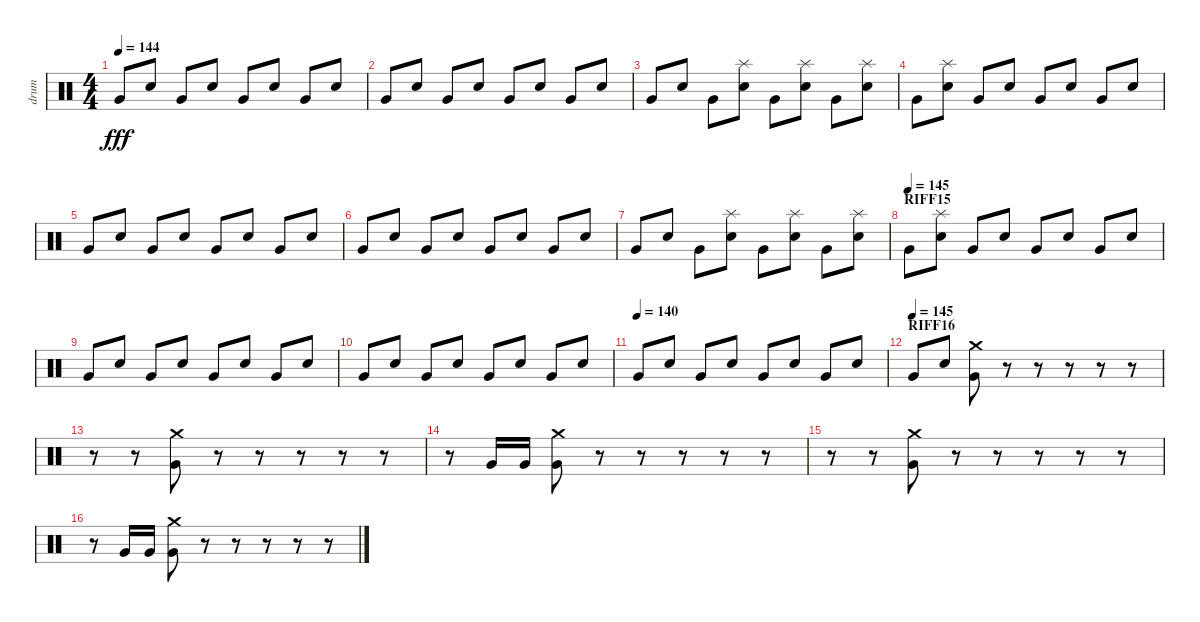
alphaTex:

\track ("drum" "drum") {instrument percussion}
\staff {score}
\articulation defaults
\ts (4 4)
\tempo 144
\clef neutral
\ks c "Very Low Tom (hit)".8{dy fff} "Electric Snare (hit)".8 "Very Low Tom (hit)".8 "Electric Snare (hit)".8 "Very Low Tom (hit)".8 "Electric Snare (hit)".8 "Very Low Tom (hit)".8 "Electric Snare (hit)".8
|
"Very Low Tom (hit)".8 "Electric Snare (hit)".8 "Very Low Tom (hit)".8 "Electric Snare (hit)".8 "Very Low Tom (hit)".8 "Electric Snare (hit)".8 "Very Low Tom (hit)".8 "Electric Snare (hit)".8 |
"Very Low Tom (hit)".8 "Electric Snare (hit)".8 "Very Low Tom (hit)".8 ("Electric Snare (hit)" "Splash (hit)").8 "Very Low Tom (hit)".8 ("Electric Snare (hit)" "Splash (hit)").8 "Very Low Tom (hit)".8 ("Electric Snare (hit)" "Splash (hit)").8 |
"Very Low Tom (hit)".8 ("Electric Snare (hit)" "Splash (hit)").8 "Very Low Tom (hit)".8 "Electric Snare (hit)".8 "Very Low Tom (hit)".8 "Electric Snare (hit)".8 "Very Low Tom (hit)".8 "Electric Snare (hit)".8 |
"Very Low Tom (hit)".8 "Electric Snare (hit)".8 "Very Low Tom (hit)".8 "Electric Snare (hit)".8 "Very Low Tom (hit)".8 "Electric Snare (hit)".8 "Very Low Tom (hit)".8 "Electric Snare (hit)".8 |
"Very Low Tom (hit)".8 "Electric Snare (hit)".8 "Very Low Tom (hit)".8 "Electric Snare (hit)".8 "Very Low Tom (hit)".8 "Electric Snare (hit)".8 "Very Low Tom (hit)".8 "Electric Snare (hit)".8 |
"Very Low Tom (hit)".8 "Electric Snare (hit)".8 "Very Low Tom (hit)".8 ("Electric Snare (hit)" "Splash (hit)").8 "Very Low Tom (hit)".8 ("Electric Snare (hit)" "Splash (hit)").8 "Very Low Tom (hit)".8 ("Electric Snare (hit)" "Splash (hit)").8 |
\section ("" "RIFF15")
\tempo (145)
"Very Low Tom (hit)".8 ("Electric Snare (hit)" "Splash (hit)").8 "Very Low Tom (hit)".8 "Electric Snare (hit)".8 "Very Low Tom (hit)".8 "Electric Snare (hit)".8 "Very Low Tom (hit)".8 "Electric Snare (hit)".8 |
"Very Low Tom (hit)".8 "Electric Snare (hit)".8 "Very Low Tom (hit)".8 "Electric Snare (hit)".8 "Very Low Tom (hit)".8 "Electric Snare (hit)".8 "Very Low Tom (hit)".8 "Electric Snare (hit)".8 |
"Very Low Tom (hit)".8 "Electric Snare (hit)".8 "Very Low Tom (hit)".8 "Electric Snare (hit)".8 "Very Low Tom (hit)".8 "Electric Snare (hit)".8 "Very Low Tom (hit)".8 "Electric Snare (hit)".8 |
\tempo (140)
"Very Low Tom (hit)".8 "Electric Snare (hit)".8 "Very Low Tom (hit)".8 "Electric Snare (hit)".8 "Very Low Tom (hit)".8 "Electric Snare (hit)".8 "Very Low Tom (hit)".8 "Electric Snare (hit)".8 |
\section ("" "RIFF16")
\tempo (145)
"Very Low Tom (hit)".8 "Electric Snare (hit)".8 ("Very Low Tom (hit)" "Crash medium (hit)").8 r.8 r.8 r.8 r.8 r.8 |
r.8 r.8 ("Very Low Tom (hit)" "Crash medium (hit)").8 r.8 r.8 r.8 r.8 r.8 |
r.8 "Very Low Tom (hit)".16 "Very Low Tom (hit)".16 ("Very Low Tom (hit)" "Crash medium (hit)").8 r.8 r.8 r.8 r.8 r.8 |
r.8 r.8 ("Very Low Tom (hit)" "Crash medium (hit)").8 r.8 r.8 r.8 r.8 r.8 |
r.8 "Very Low Tom (hit)".16 "Very Low Tom (hit)".16 ("Very Low Tom (hit)" "Crash medium (hit)").8 r.8 r.8 r.8 r.8 r.8
